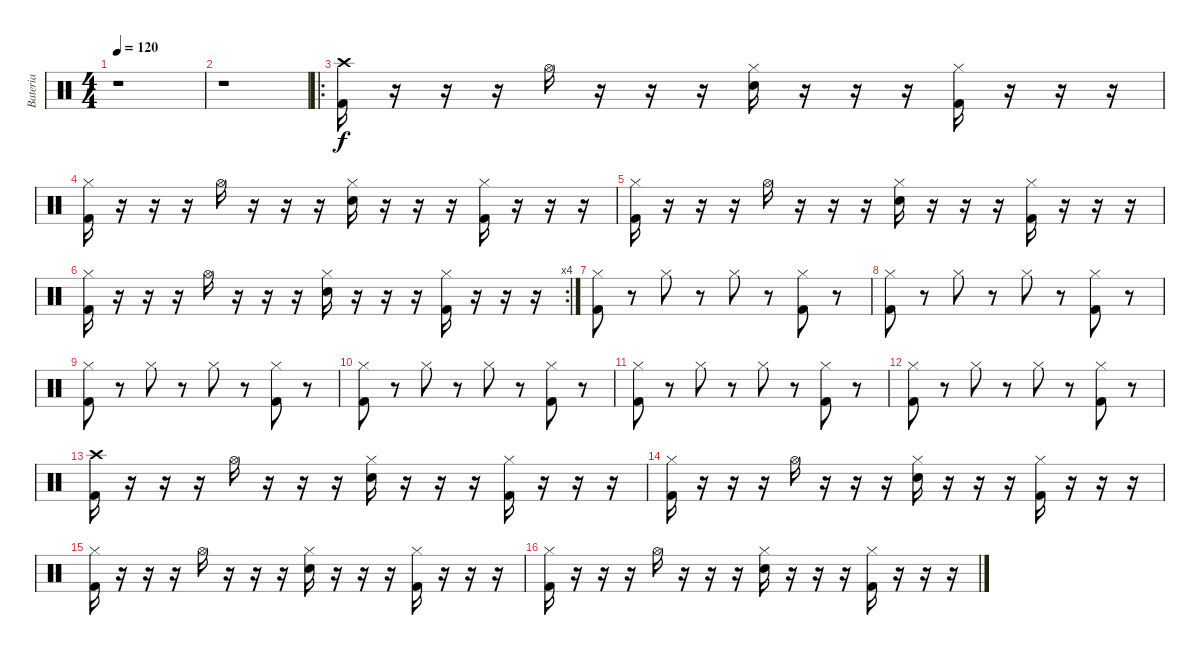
\track ("Bateria" "Bateria") {instrument percussion}
\staff {score}
\articulation defaults
\ts (4 4)
\tempo 120
\clef neutral
\ks c
r.1{dy f} |
r.1 |
\ro
("Crash high (hit)" "Kick (hit) 2").16 r.16 r.16 r.16 "Hi-Hat (open)".16 r.16 r.16 r.16 ("Hi-Hat (closed)" "Electric Snare (hit)").16 r.16 r.16 r.16 ("Hi-Hat (closed)" "Kick (hit) 2").16 r.16 r.16 r.16 |
("Hi-Hat (closed)" "Kick (hit) 2").16 r.16 r.16 r.16 "Hi-Hat (open)".16 r.16 r.16 r.16 ("Hi-Hat (closed)" "Electric Snare (hit)").16 r.16 r.16 r.16 ("Hi-Hat (closed)" "Kick (hit) 2").16 r.16 r.16 r.16 |
("Hi-Hat (closed)" "Kick (hit) 2").16 r.16 r.16 r.16 "Hi-Hat (open)".16 r.16 r.16 r.16 ("Hi-Hat (closed)" "Electric Snare (hit)").16 r.16 r.16 r.16 ("Hi-Hat (closed)" "Kick (hit) 2").16 r.16 r.16 r.16 |
\rc 4
("Hi-Hat (closed)" "Kick (hit) 2").16 r.16 r.16 r.16 "Hi-Hat (open)".16 r.16 r.16 r.16 ("Hi-Hat (closed)" "Electric Snare (hit)").16 r.16 r.16 r.16 ("Hi-Hat (closed)" "Kick (hit) 2").16 r.16 r.16 r.16 |
("Hi-Hat (closed)" "Kick (hit) 2").8 r.8 "Hi-Hat (closed)".8 r.8 "Hi-Hat (closed)".8 r.8 ("Hi-Hat (closed)" "Kick (hit) 2").8 r.8 |
("Hi-Hat (closed)" "Kick (hit) 2").8 r.8 "Hi-Hat (closed)".8 r.8 "Hi-Hat (closed)".8 r.8 ("Hi-Hat (closed)" "Kick (hit) 2").8 r.8 |
("Hi-Hat (closed)" "Kick (hit) 2").8 r.8 "Hi-Hat (closed)".8 r.8 "Hi-Hat (closed)".8 r.8 ("Hi-Hat (closed)" "Kick (hit) 2").8 r.8 |
("Hi-Hat (closed)" "Kick (hit) 2").8 r.8 "Hi-Hat (closed)".8 r.8 "Hi-Hat (closed)".8 r.8 ("Hi-Hat (closed)" "Kick (hit) 2").8 r.8 |
("Hi-Hat (closed)" "Kick (hit) 2").8 r.8 "Hi-Hat (closed)".8 r.8 "Hi-Hat (closed)".8 r.8 ("Hi-Hat (closed)" "Kick (hit) 2").8 r.8 |
("Hi-Hat (closed)" "Kick (hit) 2").8 r.8 "Hi-Hat (closed)".8 r.8 "Hi-Hat (closed)".8 r.8 ("Hi-Hat (closed)" "Kick (hit) 2").8 r.8 |
("Crash high (hit)" "Kick (hit) 2").16 r.16 r.16 r.16 "Hi-Hat (open)".16 r.16 r.16 r.16 ("Hi-Hat (closed)" "Electric Snare (hit)").16 r.16 r.16 r.16 ("Hi-Hat (closed)" "Kick (hit) 2").16 r.16 r.16 r.16 |
("Hi-Hat (closed)" "Kick (hit) 2").16 r.16 r.16 r.16 "Hi-Hat (open)".16 r.16 r.16 r.16 ("Hi-Hat (closed)" "Electric Snare (hit)").16 r.16 r.16 r.16 ("Hi-Hat (closed)" "Kick (hit) 2").16 r.16 r.16 r.16 |
("Hi-Hat (closed)" "Kick (hit) 2").16 r.16 r.16 r.16 "Hi-Hat (open)".16 r.16 r.16 r.16 ("Hi-Hat (closed)" "Electric Snare (hit)").16 r.16 r.16 r.16 ("Hi-Hat (closed)" "Kick (hit) 2").16 r.16 r.16 r.16 |
("Hi-Hat (closed)" "Kick (hit) 2").16 r.16 r.16 r.16 "Hi-Hat (open)".16 r.16 r.16 r.16 ("Hi-Hat (closed)" "Electric Snare (hit)").16 r.16 r.16 r.16 ("Hi-Hat (closed)" "Kick (hit) 2").16 r.16 r.16 r.16
